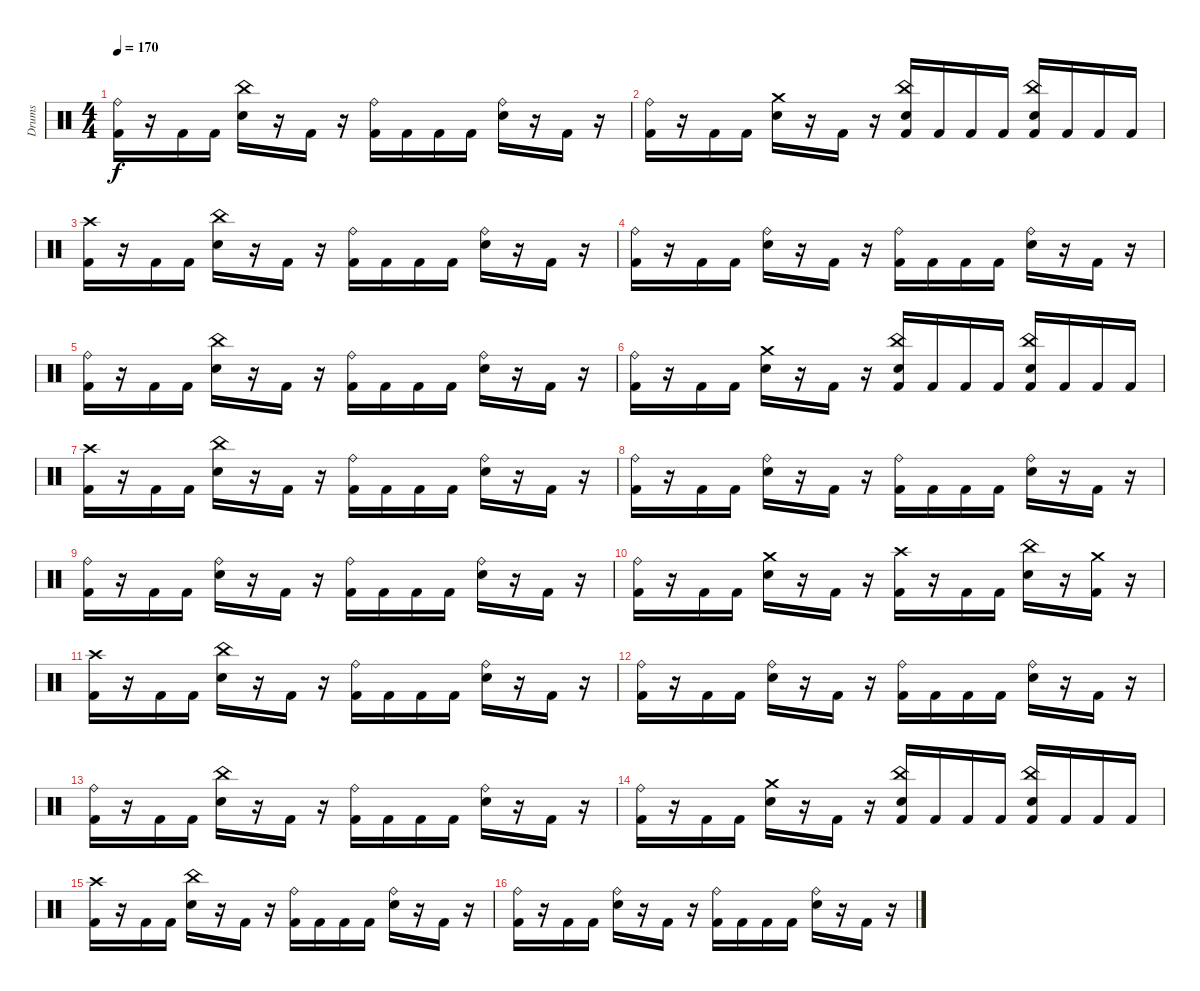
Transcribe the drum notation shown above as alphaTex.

\track ("Drums" "Drums") {instrument percussion}
\staff {score}
\articulation defaults
\ts (4 4)
\tempo 170
\clef neutral
\ks c
("Ride (bell)" "Kick (hit) 2").16{dy f} r.16 "Kick (hit) 2".16 "Kick (hit) 2".16 ("China (hit)" "Electric Snare (hit)").16 r.16 "Kick (hit) 2".16 r.16 ("Ride (bell)" "Kick (hit) 2").16 "Kick (hit) 2".16 "Kick (hit) 2".16 "Kick (hit) 2".16 ("Ride (bell)" "Electric Snare (hit)").16 r.16 "Kick (hit) 2".16 r.16 |
("Ride (bell)" "Kick (hit) 2").16 r.16 "Kick (hit) 2".16 "Kick (hit) 2".16 ("Crash medium (hit)" "Electric Snare (hit)").16 r.16 "Kick (hit) 2".16 r.16 ("China (hit)" "Electric Snare (hit)" "Kick (hit) 2").16 "Kick (hit) 2".16 "Kick (hit) 2".16 "Kick (hit) 2".16 ("China (hit)" "Electric Snare (hit)" "Kick (hit) 2").16 "Kick (hit) 2".16 "Kick (hit) 2".16 "Kick (hit) 2".16 |
\section ("" "")
("Crash high (hit)" "Kick (hit) 2").16 r.16 "Kick (hit) 2".16 "Kick (hit) 2".16 ("China (hit)" "Electric Snare (hit)").16 r.16 "Kick (hit) 2".16 r.16 ("Ride (bell)" "Kick (hit) 2").16 "Kick (hit) 2".16 "Kick (hit) 2".16 "Kick (hit) 2".16 ("Ride (bell)" "Electric Snare (hit)").16 r.16 "Kick (hit) 2".16 r.16 |
("Ride (bell)" "Kick (hit) 2").16 r.16 "Kick (hit) 2".16 "Kick (hit) 2".16 ("Ride (bell)" "Electric Snare (hit)").16 r.16 "Kick (hit) 2".16 r.16 ("Ride (bell)" "Kick (hit) 2").16 "Kick (hit) 2".16 "Kick (hit) 2".16 "Kick (hit) 2".16 ("Ride (bell)" "Electric Snare (hit)").16 r.16 "Kick (hit) 2".16 r.16 |
("Ride (bell)" "Kick (hit) 2").16 r.16 "Kick (hit) 2".16 "Kick (hit) 2".16 ("China (hit)" "Electric Snare (hit)").16 r.16 "Kick (hit) 2".16 r.16 ("Ride (bell)" "Kick (hit) 2").16 "Kick (hit) 2".16 "Kick (hit) 2".16 "Kick (hit) 2".16 ("Ride (bell)" "Electric Snare (hit)").16 r.16 "Kick (hit) 2".16 r.16 |
("Ride (bell)" "Kick (hit) 2").16 r.16 "Kick (hit) 2".16 "Kick (hit) 2".16 ("Crash medium (hit)" "Electric Snare (hit)").16 r.16 "Kick (hit) 2".16 r.16 ("China (hit)" "Electric Snare (hit)" "Kick (hit) 2").16 "Kick (hit) 2".16 "Kick (hit) 2".16 "Kick (hit) 2".16 ("China (hit)" "Electric Snare (hit)" "Kick (hit) 2").16 "Kick (hit) 2".16 "Kick (hit) 2".16 "Kick (hit) 2".16 |
("Crash high (hit)" "Kick (hit) 2").16 r.16 "Kick (hit) 2".16 "Kick (hit) 2".16 ("China (hit)" "Electric Snare (hit)").16 r.16 "Kick (hit) 2".16 r.16 ("Ride (bell)" "Kick (hit) 2").16 "Kick (hit) 2".16 "Kick (hit) 2".16 "Kick (hit) 2".16 ("Ride (bell)" "Electric Snare (hit)").16 r.16 "Kick (hit) 2".16 r.16 |
("Ride (bell)" "Kick (hit) 2").16 r.16 "Kick (hit) 2".16 "Kick (hit) 2".16 ("Ride (bell)" "Electric Snare (hit)").16 r.16 "Kick (hit) 2".16 r.16 ("Ride (bell)" "Kick (hit) 2").16 "Kick (hit) 2".16 "Kick (hit) 2".16 "Kick (hit) 2".16 ("Ride (bell)" "Electric Snare (hit)").16 r.16 "Kick (hit) 2".16 r.16 |
("Ride (bell)" "Kick (hit) 2").16 r.16 "Kick (hit) 2".16 "Kick (hit) 2".16 ("Ride (bell)" "Electric Snare (hit)").16 r.16 "Kick (hit) 2".16 r.16 ("Ride (bell)" "Kick (hit) 2").16 "Kick (hit) 2".16 "Kick (hit) 2".16 "Kick (hit) 2".16 ("Ride (bell)" "Electric Snare (hit)").16 r.16 "Kick (hit) 2".16 r.16 |
("Ride (bell)" "Kick (hit) 2").16 r.16 "Kick (hit) 2".16 "Kick (hit) 2".16 ("Crash medium (hit)" "Electric Snare (hit)").16 r.16 "Kick (hit) 2".16 r.16 ("Crash high (hit)" "Kick (hit) 2").16 r.16 "Kick (hit) 2".16 "Kick (hit) 2".16 ("China (hit)" "Electric Snare (hit)").16 r.16 ("Crash medium (hit)" "Kick (hit) 2").16 r.16 |
("Crash high (hit)" "Kick (hit) 2").16 r.16 "Kick (hit) 2".16 "Kick (hit) 2".16 ("China (hit)" "Electric Snare (hit)").16 r.16 "Kick (hit) 2".16 r.16 ("Ride (bell)" "Kick (hit) 2").16 "Kick (hit) 2".16 "Kick (hit) 2".16 "Kick (hit) 2".16 ("Ride (bell)" "Electric Snare (hit)").16 r.16 "Kick (hit) 2".16 r.16 |
("Ride (bell)" "Kick (hit) 2").16 r.16 "Kick (hit) 2".16 "Kick (hit) 2".16 ("Ride (bell)" "Electric Snare (hit)").16 r.16 "Kick (hit) 2".16 r.16 ("Ride (bell)" "Kick (hit) 2").16 "Kick (hit) 2".16 "Kick (hit) 2".16 "Kick (hit) 2".16 ("Ride (bell)" "Electric Snare (hit)").16 r.16 "Kick (hit) 2".16 r.16 |
("Ride (bell)" "Kick (hit) 2").16 r.16 "Kick (hit) 2".16 "Kick (hit) 2".16 ("China (hit)" "Electric Snare (hit)").16 r.16 "Kick (hit) 2".16 r.16 ("Ride (bell)" "Kick (hit) 2").16 "Kick (hit) 2".16 "Kick (hit) 2".16 "Kick (hit) 2".16 ("Ride (bell)" "Electric Snare (hit)").16 r.16 "Kick (hit) 2".16 r.16 |
("Ride (bell)" "Kick (hit) 2").16 r.16 "Kick (hit) 2".16 "Kick (hit) 2".16 ("Crash medium (hit)" "Electric Snare (hit)").16 r.16 "Kick (hit) 2".16 r.16 ("China (hit)" "Electric Snare (hit)" "Kick (hit) 2").16 "Kick (hit) 2".16 "Kick (hit) 2".16 "Kick (hit) 2".16 ("China (hit)" "Electric Snare (hit)" "Kick (hit) 2").16 "Kick (hit) 2".16 "Kick (hit) 2".16 "Kick (hit) 2".16 |
("Crash high (hit)" "Kick (hit) 2").16 r.16 "Kick (hit) 2".16 "Kick (hit) 2".16 ("China (hit)" "Electric Snare (hit)").16 r.16 "Kick (hit) 2".16 r.16 ("Ride (bell)" "Kick (hit) 2").16 "Kick (hit) 2".16 "Kick (hit) 2".16 "Kick (hit) 2".16 ("Ride (bell)" "Electric Snare (hit)").16 r.16 "Kick (hit) 2".16 r.16 |
("Ride (bell)" "Kick (hit) 2").16 r.16 "Kick (hit) 2".16 "Kick (hit) 2".16 ("Ride (bell)" "Electric Snare (hit)").16 r.16 "Kick (hit) 2".16 r.16 ("Ride (bell)" "Kick (hit) 2").16 "Kick (hit) 2".16 "Kick (hit) 2".16 "Kick (hit) 2".16 ("Ride (bell)" "Electric Snare (hit)").16 r.16 "Kick (hit) 2".16 r.16
